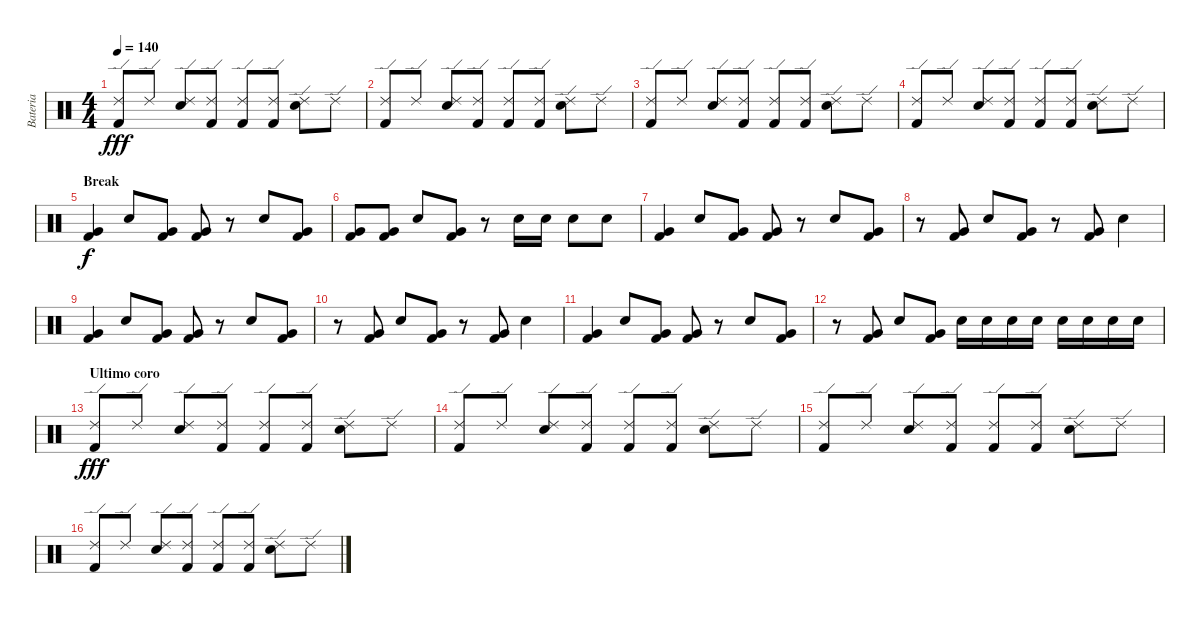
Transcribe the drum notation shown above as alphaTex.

\track ("Bateria" "Bateria") {instrument percussion}
\staff {score}
\articulation defaults
\ts (4 4)
\tempo 140
\clef neutral
\ks c
("Ride (edge) 2" "Kick (hit) 2").8{dy fff} "Ride (edge) 2".8 ("Ride (edge) 2" "Snare (hit) 2").8 ("Ride (edge) 2" "Kick (hit) 2").8 ("Ride (edge) 2" "Kick (hit) 2").8 ("Ride (edge) 2" "Kick (hit) 2").8 ("Ride (edge) 2" "Snare (hit) 2").8 "Ride (edge) 2".8 |
("Ride (edge) 2" "Kick (hit) 2").8 "Ride (edge) 2".8 ("Ride (edge) 2" "Snare (hit) 2").8 ("Ride (edge) 2" "Kick (hit) 2").8 ("Ride (edge) 2" "Kick (hit) 2").8 ("Ride (edge) 2" "Kick (hit) 2").8 ("Ride (edge) 2" "Snare (hit) 2").8 "Ride (edge) 2".8 |
("Ride (edge) 2" "Kick (hit) 2").8 "Ride (edge) 2".8 ("Ride (edge) 2" "Snare (hit) 2").8 ("Ride (edge) 2" "Kick (hit) 2").8 ("Ride (edge) 2" "Kick (hit) 2").8 ("Ride (edge) 2" "Kick (hit) 2").8 ("Ride (edge) 2" "Snare (hit) 2").8 "Ride (edge) 2".8 |
("Ride (edge) 2" "Kick (hit) 2").8 "Ride (edge) 2".8 ("Ride (edge) 2" "Snare (hit) 2").8 ("Ride (edge) 2" "Kick (hit) 2").8 ("Ride (edge) 2" "Kick (hit) 2").8 ("Ride (edge) 2" "Kick (hit) 2").8 ("Ride (edge) 2" "Snare (hit) 2").8 "Ride (edge) 2".8 |
\section ("" "Break")
("Very Low Tom (hit)" "Kick (hit) 2").4{dy f} "Snare (hit) 2".8 ("Very Low Tom (hit)" "Kick (hit) 2").8 ("Very Low Tom (hit)" "Kick (hit) 2").8 r.8 "Snare (hit) 2".8 ("Very Low Tom (hit)" "Kick (hit) 2").8 |
("Very Low Tom (hit)" "Kick (hit) 2").8 ("Very Low Tom (hit)" "Kick (hit) 2").8 "Snare (hit) 2".8 ("Very Low Tom (hit)" "Kick (hit) 2").8 r.8 "Snare (hit) 2".16 "Snare (hit) 2".16 "Snare (hit) 2".8 "Snare (hit) 2".8 |
("Very Low Tom (hit)" "Kick (hit) 2").4 "Snare (hit) 2".8 ("Very Low Tom (hit)" "Kick (hit) 2").8 ("Very Low Tom (hit)" "Kick (hit) 2").8 r.8 "Snare (hit) 2".8 ("Very Low Tom (hit)" "Kick (hit) 2").8 |
r.8 ("Very Low Tom (hit)" "Kick (hit) 2").8 "Snare (hit) 2".8 ("Very Low Tom (hit)" "Kick (hit) 2").8 r.8 ("Very Low Tom (hit)" "Kick (hit) 2").8 "Snare (hit) 2".4 |
("Very Low Tom (hit)" "Kick (hit) 2").4 "Snare (hit) 2".8 ("Very Low Tom (hit)" "Kick (hit) 2").8 ("Very Low Tom (hit)" "Kick (hit) 2").8 r.8 "Snare (hit) 2".8 ("Very Low Tom (hit)" "Kick (hit) 2").8 |
r.8 ("Very Low Tom (hit)" "Kick (hit) 2").8 "Snare (hit) 2".8 ("Very Low Tom (hit)" "Kick (hit) 2").8 r.8 ("Very Low Tom (hit)" "Kick (hit) 2").8 "Snare (hit) 2".4 |
("Very Low Tom (hit)" "Kick (hit) 2").4 "Snare (hit) 2".8 ("Very Low Tom (hit)" "Kick (hit) 2").8 ("Very Low Tom (hit)" "Kick (hit) 2").8 r.8 "Snare (hit) 2".8 ("Very Low Tom (hit)" "Kick (hit) 2").8 |
r.8 ("Very Low Tom (hit)" "Kick (hit) 2").8 "Snare (hit) 2".8 ("Very Low Tom (hit)" "Kick (hit) 2").8 "Snare (hit) 2".16 "Snare (hit) 2".16 "Snare (hit) 2".16 "Snare (hit) 2".16 "Snare (hit) 2".16 "Snare (hit) 2".16 "Snare (hit) 2".16 "Snare (hit) 2".16 |
\section ("" "Ultimo coro")
("Ride (edge) 2" "Kick (hit) 2").8{dy fff} "Ride (edge) 2".8 ("Ride (edge) 2" "Snare (hit) 2").8 ("Ride (edge) 2" "Kick (hit) 2").8 ("Ride (edge) 2" "Kick (hit) 2").8 ("Ride (edge) 2" "Kick (hit) 2").8 ("Ride (edge) 2" "Snare (hit) 2").8 "Ride (edge) 2".8 |
("Ride (edge) 2" "Kick (hit) 2").8 "Ride (edge) 2".8 ("Ride (edge) 2" "Snare (hit) 2").8 ("Ride (edge) 2" "Kick (hit) 2").8 ("Ride (edge) 2" "Kick (hit) 2").8 ("Ride (edge) 2" "Kick (hit) 2").8 ("Ride (edge) 2" "Snare (hit) 2").8 "Ride (edge) 2".8 |
("Ride (edge) 2" "Kick (hit) 2").8 "Ride (edge) 2".8 ("Ride (edge) 2" "Snare (hit) 2").8 ("Ride (edge) 2" "Kick (hit) 2").8 ("Ride (edge) 2" "Kick (hit) 2").8 ("Ride (edge) 2" "Kick (hit) 2").8 ("Ride (edge) 2" "Snare (hit) 2").8 "Ride (edge) 2".8 |
("Ride (edge) 2" "Kick (hit) 2").8 "Ride (edge) 2".8 ("Ride (edge) 2" "Snare (hit) 2").8 ("Ride (edge) 2" "Kick (hit) 2").8 ("Ride (edge) 2" "Kick (hit) 2").8 ("Ride (edge) 2" "Kick (hit) 2").8 ("Ride (edge) 2" "Snare (hit) 2").8 "Ride (edge) 2".8
